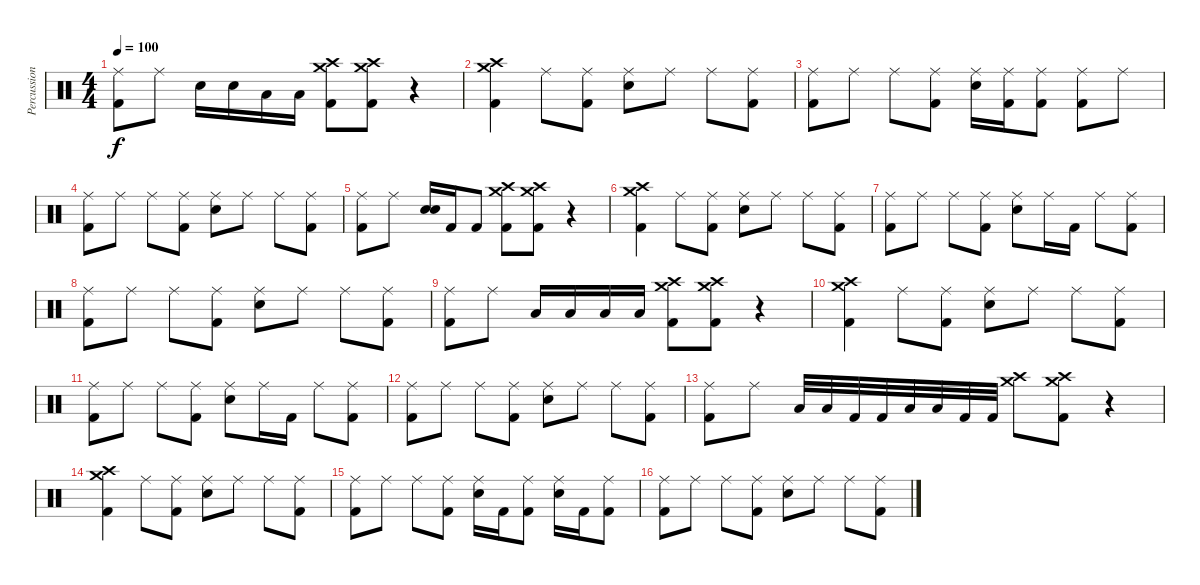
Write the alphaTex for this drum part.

\track ("Percussion" "Percussion") {instrument percussion}
\staff {score}
\articulation defaults
\ts (4 4)
\tempo 100
\clef neutral
\ks c
("Kick (hit) 2" "Ride (middle)").8{dy f} "Ride (middle)".8 "Snare (hit) 2".16 "Snare (hit) 2".16 "Low Floor Tom (hit)".16 "Low Floor Tom (hit)".16 ("Kick (hit) 2" "Crash high (hit)" "Crash medium (hit)").8 ("Kick (hit) 2" "Crash high (hit)" "Crash medium (hit)").8 r.4 |
("Kick (hit) 2" "Crash high (hit)" "Crash medium (hit)").4 "Ride (middle)".8 ("Kick (hit) 2" "Ride (middle)").8 ("Snare (hit) 2" "Ride (middle)").8 "Ride (middle)".8 "Ride (middle)".8 ("Kick (hit) 2" "Ride (middle)").8 |
("Kick (hit) 2" "Ride (middle)").8 "Ride (middle)".8 "Ride (middle)".8 ("Kick (hit) 2" "Ride (middle)").8 ("Snare (hit) 2" "Ride (middle)").16 ("Kick (hit) 2" "Ride (middle)").16 ("Kick (hit) 2" "Ride (middle)").8 ("Kick (hit) 2" "Ride (middle)").8 "Ride (middle)".8 |
("Kick (hit) 2" "Ride (middle)").8 "Ride (middle)".8 "Ride (middle)".8 ("Kick (hit) 2" "Ride (middle)").8 ("Snare (hit) 2" "Ride (middle)").8 "Ride (middle)".8 "Ride (middle)".8 ("Kick (hit) 2" "Ride (middle)").8 |
("Kick (hit) 2" "Ride (middle)").8 "Ride (middle)".8 ("Snare (hit) 2" "Electric Snare (hit)").16 "Kick (hit) 2".16 "Kick (hit) 2".8 ("Kick (hit) 2" "Crash high (hit)" "Crash medium (hit)").8 ("Kick (hit) 2" "Crash high (hit)" "Crash medium (hit)").8 r.4 |
("Kick (hit) 2" "Crash high (hit)" "Crash medium (hit)").4 "Ride (middle)".8 ("Kick (hit) 2" "Ride (middle)").8 ("Snare (hit) 2" "Ride (middle)").8 "Ride (middle)".8 "Ride (middle)".8 ("Kick (hit) 2" "Ride (middle)").8 |
("Kick (hit) 2" "Ride (middle)").8 "Ride (middle)".8 "Ride (middle)".8 ("Kick (hit) 2" "Ride (middle)").8 ("Snare (hit) 2" "Ride (middle)").8 "Ride (middle)".16 "Kick (hit) 2".16 "Ride (middle)".8 ("Kick (hit) 2" "Ride (middle)").8 |
("Kick (hit) 2" "Ride (middle)").8 "Ride (middle)".8 "Ride (middle)".8 ("Kick (hit) 2" "Ride (middle)").8 ("Snare (hit) 2" "Ride (middle)").8 "Ride (middle)".8 "Ride (middle)".8 ("Kick (hit) 2" "Ride (middle)").8 |
("Kick (hit) 2" "Ride (middle)").8 "Ride (middle)".8 "Low Floor Tom (hit)".16 "Low Floor Tom (hit)".16 "Low Floor Tom (hit)".16 "Low Floor Tom (hit)".16 ("Kick (hit) 2" "Crash high (hit)" "Crash medium (hit)").8 ("Kick (hit) 2" "Crash high (hit)" "Crash medium (hit)").8 r.4 |
("Kick (hit) 2" "Crash high (hit)" "Crash medium (hit)").4 "Ride (middle)".8 ("Kick (hit) 2" "Ride (middle)").8 ("Snare (hit) 2" "Ride (middle)").8 "Ride (middle)".8 "Ride (middle)".8 ("Kick (hit) 2" "Ride (middle)").8 |
("Kick (hit) 2" "Ride (middle)").8 "Ride (middle)".8 "Ride (middle)".8 ("Kick (hit) 2" "Ride (middle)").8 ("Snare (hit) 2" "Ride (middle)").8 "Ride (middle)".16 "Kick (hit) 2".16 "Ride (middle)".8 ("Kick (hit) 2" "Ride (middle)").8 |
("Kick (hit) 2" "Ride (middle)").8 "Ride (middle)".8 "Ride (middle)".8 ("Kick (hit) 2" "Ride (middle)").8 ("Snare (hit) 2" "Ride (middle)").8 "Ride (middle)".8 "Ride (middle)".8 ("Kick (hit) 2" "Ride (middle)").8 |
("Kick (hit) 2" "Ride (middle)").8 "Ride (middle)".8 "Low Floor Tom (hit)".32 "Low Floor Tom (hit)".32 "Kick (hit) 2".32 "Kick (hit) 2".32 "Low Floor Tom (hit)".32 "Low Floor Tom (hit)".32 "Kick (hit) 2".32 "Kick (hit) 2".32 ("Crash high (hit)" "Crash medium (hit)").8 ("Kick (hit) 2" "Crash high (hit)" "Crash medium (hit)").8 r.4 |
("Kick (hit) 2" "Crash high (hit)" "Crash medium (hit)").4 "Ride (middle)".8 ("Kick (hit) 2" "Ride (middle)").8 ("Snare (hit) 2" "Ride (middle)").8 "Ride (middle)".8 "Ride (middle)".8 ("Kick (hit) 2" "Ride (middle)").8 |
("Kick (hit) 2" "Ride (middle)").8 "Ride (middle)".8 "Ride (middle)".8 ("Kick (hit) 2" "Ride (middle)").8 ("Snare (hit) 2" "Ride (middle)").16 "Kick (hit) 2".16 ("Kick (hit) 2" "Ride (middle)").8 ("Snare (hit) 2" "Ride (middle)").16 "Kick (hit) 2".16 ("Kick (hit) 2" "Ride (middle)").8 |
("Kick (hit) 2" "Ride (middle)").8 "Ride (middle)".8 "Ride (middle)".8 ("Kick (hit) 2" "Ride (middle)").8 ("Snare (hit) 2" "Ride (middle)").8 "Ride (middle)".8 "Ride (middle)".8 ("Kick (hit) 2" "Ride (middle)").8
